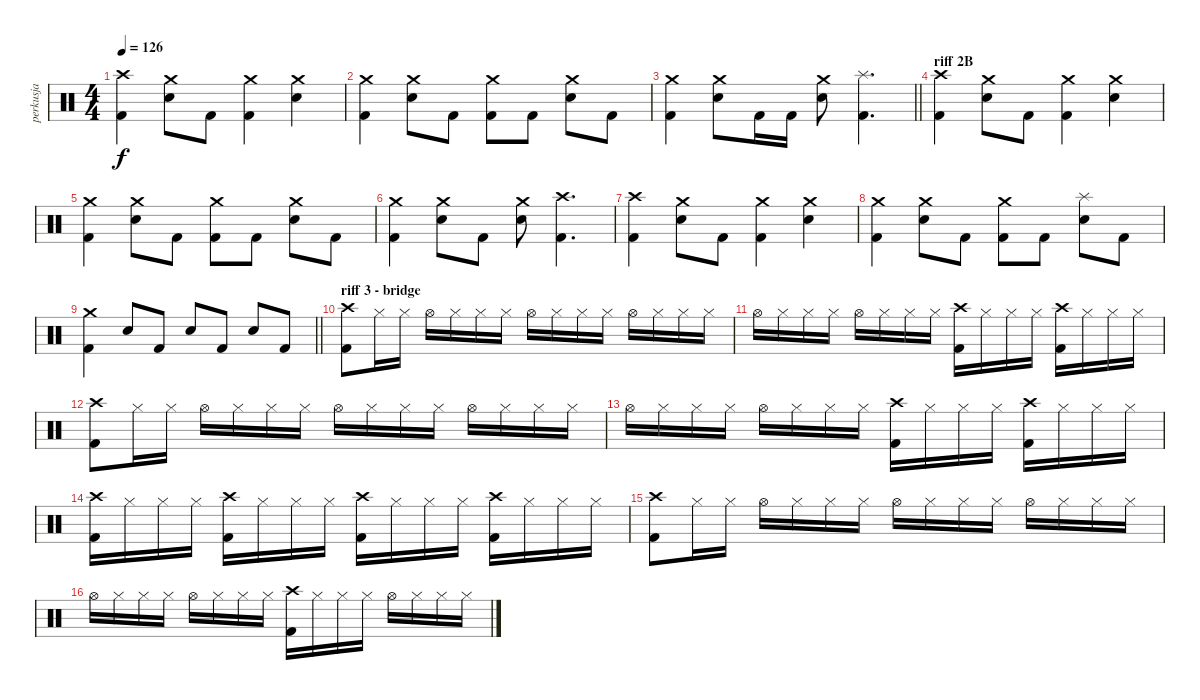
\track ("perkusja" "perkusja") {instrument percussion}
\staff {score}
\articulation defaults
\ts (4 4)
\tempo 126
\clef neutral
\ks c
("Crash high (hit)" "Kick (hit) 2").4{dy f} ("Crash medium (hit)" "Electric Snare (hit)").8 "Kick (hit) 2".8 ("Crash medium (hit)" "Kick (hit) 2").4 ("Crash medium (hit)" "Electric Snare (hit)").4 |
("Crash medium (hit)" "Kick (hit) 2").4 ("Crash medium (hit)" "Electric Snare (hit)").8 "Kick (hit) 2".8 ("Crash medium (hit)" "Kick (hit) 2").8 "Kick (hit) 2".8 ("Crash medium (hit)" "Electric Snare (hit)").8 "Kick (hit) 2".8 |
\barLineRight lightlight
("Crash medium (hit)" "Kick (hit) 2").4 ("Crash medium (hit)" "Electric Snare (hit)").8 "Kick (hit) 2".16 "Kick (hit) 2".16 ("Crash medium (hit)" "Electric Snare (hit)").8 ("Splash (hit)" "Kick (hit) 2").4{d} |
\section ("" "riff 2B")
("Crash high (hit)" "Kick (hit) 2").4 ("Crash medium (hit)" "Electric Snare (hit)").8 "Kick (hit) 2".8 ("Crash medium (hit)" "Kick (hit) 2").4 ("Crash medium (hit)" "Electric Snare (hit)").4 |
("Crash medium (hit)" "Kick (hit) 2").4 ("Crash medium (hit)" "Electric Snare (hit)").8 "Kick (hit) 2".8 ("Crash medium (hit)" "Kick (hit) 2").8 "Kick (hit) 2".8 ("Crash medium (hit)" "Electric Snare (hit)").8 "Kick (hit) 2".8 |
("Crash medium (hit)" "Kick (hit) 2").4 ("Crash medium (hit)" "Electric Snare (hit)").8 "Kick (hit) 2".8 ("Crash medium (hit)" "Electric Snare (hit)").8 ("Crash high (hit)" "Kick (hit) 2").4{d} |
("Crash high (hit)" "Kick (hit) 2").4 ("Crash medium (hit)" "Electric Snare (hit)").8 "Kick (hit) 2".8 ("Crash medium (hit)" "Kick (hit) 2").4 ("Crash medium (hit)" "Electric Snare (hit)").4 |
("Crash medium (hit)" "Kick (hit) 2").4 ("Crash medium (hit)" "Electric Snare (hit)").8 "Kick (hit) 2".8 ("Crash medium (hit)" "Kick (hit) 2").8 "Kick (hit) 2".8 ("Splash (hit)" "Electric Snare (hit)").8 "Kick (hit) 2".8 |
\barLineRight lightlight
("Crash medium (hit)" "Kick (hit) 2").4 "Electric Snare (hit)".8 "Kick (hit) 2".8 "Electric Snare (hit)".8 "Kick (hit) 2".8 "Electric Snare (hit)".8 "Kick (hit) 2".8 |
\section ("" "riff 3 - bridge")
("Crash high (hit)" "Kick (hit) 2").8 "Hi-Hat (closed)".16 "Hi-Hat (closed)".16 "Hi-Hat (open)".16 "Hi-Hat (closed)".16 "Hi-Hat (closed)".16 "Hi-Hat (closed)".16 "Hi-Hat (open)".16 "Hi-Hat (closed)".16 "Hi-Hat (closed)".16 "Hi-Hat (closed)".16 "Hi-Hat (open)".16 "Hi-Hat (closed)".16 "Hi-Hat (closed)".16 "Hi-Hat (closed)".16 |
"Hi-Hat (open)".16 "Hi-Hat (closed)".16 "Hi-Hat (closed)".16 "Hi-Hat (closed)".16 "Hi-Hat (open)".16 "Hi-Hat (closed)".16 "Hi-Hat (closed)".16 "Hi-Hat (closed)".16 ("Crash high (hit)" "Kick (hit) 2").16 "Hi-Hat (closed)".16 "Hi-Hat (closed)".16 "Hi-Hat (closed)".16 ("Crash high (hit)" "Kick (hit) 2").16 "Hi-Hat (closed)".16 "Hi-Hat (closed)".16 "Hi-Hat (closed)".16 |
("Crash high (hit)" "Kick (hit) 2").8 "Hi-Hat (closed)".16 "Hi-Hat (closed)".16 "Hi-Hat (open)".16 "Hi-Hat (closed)".16 "Hi-Hat (closed)".16 "Hi-Hat (closed)".16 "Hi-Hat (open)".16 "Hi-Hat (closed)".16 "Hi-Hat (closed)".16 "Hi-Hat (closed)".16 "Hi-Hat (open)".16 "Hi-Hat (closed)".16 "Hi-Hat (closed)".16 "Hi-Hat (closed)".16 |
"Hi-Hat (open)".16 "Hi-Hat (closed)".16 "Hi-Hat (closed)".16 "Hi-Hat (closed)".16 "Hi-Hat (open)".16 "Hi-Hat (closed)".16 "Hi-Hat (closed)".16 "Hi-Hat (closed)".16 ("Crash high (hit)" "Kick (hit) 2").16 "Hi-Hat (closed)".16 "Hi-Hat (closed)".16 "Hi-Hat (closed)".16 ("Crash high (hit)" "Kick (hit) 2").16 "Hi-Hat (closed)".16 "Hi-Hat (closed)".16 "Hi-Hat (closed)".16 |
("Crash high (hit)" "Kick (hit) 2").16 "Hi-Hat (closed)".16 "Hi-Hat (closed)".16 "Hi-Hat (closed)".16 ("Crash high (hit)" "Kick (hit) 2").16 "Hi-Hat (closed)".16 "Hi-Hat (closed)".16 "Hi-Hat (closed)".16 ("Crash high (hit)" "Kick (hit) 2").16 "Hi-Hat (closed)".16 "Hi-Hat (closed)".16 "Hi-Hat (closed)".16 ("Crash high (hit)" "Kick (hit) 2").16 "Hi-Hat (closed)".16 "Hi-Hat (closed)".16 "Hi-Hat (closed)".16 |
("Crash high (hit)" "Kick (hit) 2").8 "Hi-Hat (closed)".16 "Hi-Hat (closed)".16 "Hi-Hat (open)".16 "Hi-Hat (closed)".16 "Hi-Hat (closed)".16 "Hi-Hat (closed)".16 "Hi-Hat (open)".16 "Hi-Hat (closed)".16 "Hi-Hat (closed)".16 "Hi-Hat (closed)".16 "Hi-Hat (open)".16 "Hi-Hat (closed)".16 "Hi-Hat (closed)".16 "Hi-Hat (closed)".16 |
"Hi-Hat (open)".16 "Hi-Hat (closed)".16 "Hi-Hat (closed)".16 "Hi-Hat (closed)".16 "Hi-Hat (open)".16 "Hi-Hat (closed)".16 "Hi-Hat (closed)".16 "Hi-Hat (closed)".16 ("Crash high (hit)" "Kick (hit) 2").16 "Hi-Hat (closed)".16 "Hi-Hat (closed)".16 "Hi-Hat (closed)".16 "Hi-Hat (open)".16 "Hi-Hat (closed)".16 "Hi-Hat (closed)".16 "Hi-Hat (closed)".16
